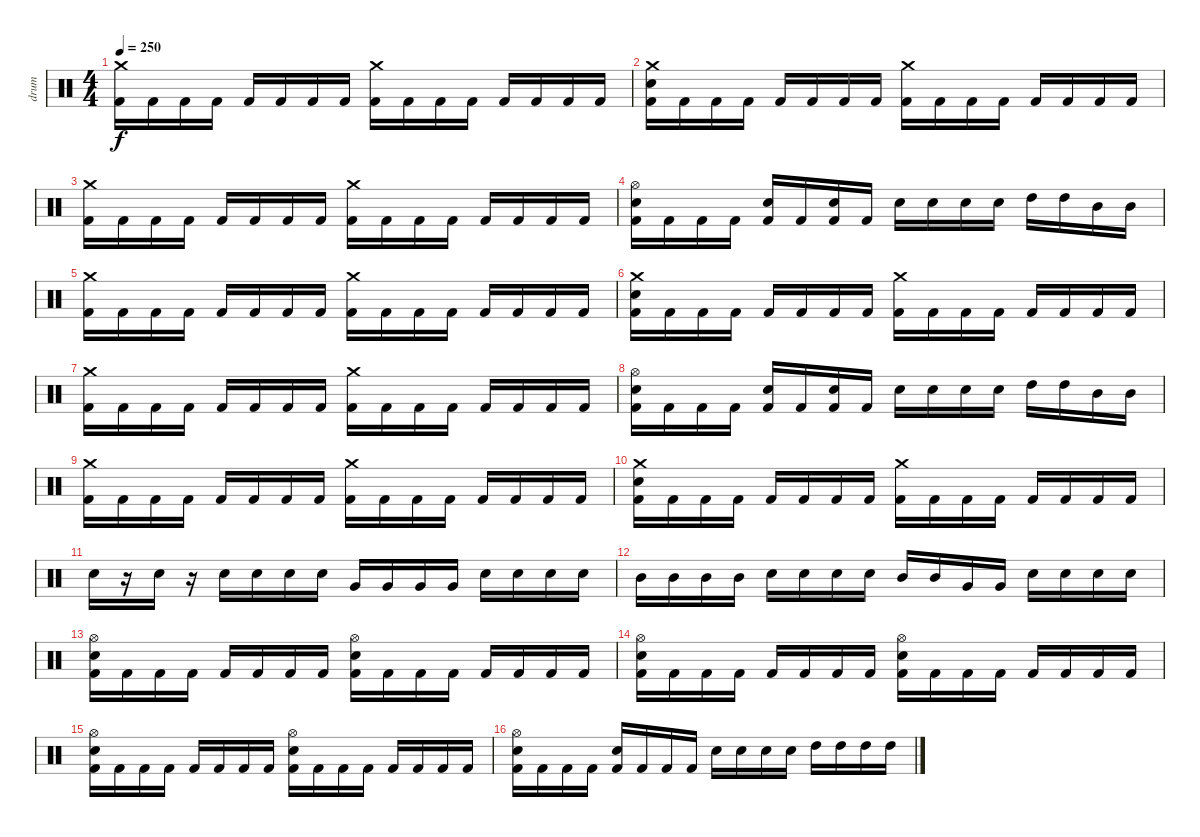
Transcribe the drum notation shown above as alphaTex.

\track ("drum" "drum") {instrument percussion}
\staff {score}
\articulation defaults
\ts (4 4)
\tempo 250
\clef neutral
\ks c
("Crash medium (hit)" "Kick (hit) 2").16{dy f} "Kick (hit) 2".16 "Kick (hit) 2".16 "Kick (hit) 2".16 "Kick (hit) 2".16 "Kick (hit) 2".16 "Kick (hit) 2".16 "Kick (hit) 2".16 ("Crash medium (hit)" "Kick (hit) 2").16 "Kick (hit) 2".16 "Kick (hit) 2".16 "Kick (hit) 2".16 "Kick (hit) 2".16 "Kick (hit) 2".16 "Kick (hit) 2".16 "Kick (hit) 2".16 |
("Snare (hit) 2" "Crash medium (hit)" "Kick (hit) 2").16 "Kick (hit) 2".16 "Kick (hit) 2".16 "Kick (hit) 2".16 "Kick (hit) 2".16 "Kick (hit) 2".16 "Kick (hit) 2".16 "Kick (hit) 2".16 ("Crash medium (hit)" "Kick (hit) 2").16 "Kick (hit) 2".16 "Kick (hit) 2".16 "Kick (hit) 2".16 "Kick (hit) 2".16 "Kick (hit) 2".16 "Kick (hit) 2".16 "Kick (hit) 2".16 |
("Crash medium (hit)" "Kick (hit) 2").16 "Kick (hit) 2".16 "Kick (hit) 2".16 "Kick (hit) 2".16 "Kick (hit) 2".16 "Kick (hit) 2".16 "Kick (hit) 2".16 "Kick (hit) 2".16 ("Crash medium (hit)" "Kick (hit) 2").16 "Kick (hit) 2".16 "Kick (hit) 2".16 "Kick (hit) 2".16 "Kick (hit) 2".16 "Kick (hit) 2".16 "Kick (hit) 2".16 "Kick (hit) 2".16 |
("Snare (hit) 2" "Hi-Hat (open)" "Kick (hit) 2").16 "Kick (hit) 2".16 "Kick (hit) 2".16 "Kick (hit) 2".16 ("Snare (hit) 2" "Kick (hit) 2").16 "Kick (hit) 2".16 ("Snare (hit) 2" "Kick (hit) 2").16 "Kick (hit) 2".16 "Snare (hit) 2".16 "Snare (hit) 2".16 "Snare (hit) 2".16 "Snare (hit) 2".16 "High Tom (hit)".16 "High Tom (hit)".16 "Mid Tom (hit)".16 "Mid Tom (hit)".16 |
("Crash medium (hit)" "Kick (hit) 2").16 "Kick (hit) 2".16 "Kick (hit) 2".16 "Kick (hit) 2".16 "Kick (hit) 2".16 "Kick (hit) 2".16 "Kick (hit) 2".16 "Kick (hit) 2".16 ("Crash medium (hit)" "Kick (hit) 2").16 "Kick (hit) 2".16 "Kick (hit) 2".16 "Kick (hit) 2".16 "Kick (hit) 2".16 "Kick (hit) 2".16 "Kick (hit) 2".16 "Kick (hit) 2".16 |
("Snare (hit) 2" "Crash medium (hit)" "Kick (hit) 2").16 "Kick (hit) 2".16 "Kick (hit) 2".16 "Kick (hit) 2".16 "Kick (hit) 2".16 "Kick (hit) 2".16 "Kick (hit) 2".16 "Kick (hit) 2".16 ("Crash medium (hit)" "Kick (hit) 2").16 "Kick (hit) 2".16 "Kick (hit) 2".16 "Kick (hit) 2".16 "Kick (hit) 2".16 "Kick (hit) 2".16 "Kick (hit) 2".16 "Kick (hit) 2".16 |
("Crash medium (hit)" "Kick (hit) 2").16 "Kick (hit) 2".16 "Kick (hit) 2".16 "Kick (hit) 2".16 "Kick (hit) 2".16 "Kick (hit) 2".16 "Kick (hit) 2".16 "Kick (hit) 2".16 ("Crash medium (hit)" "Kick (hit) 2").16 "Kick (hit) 2".16 "Kick (hit) 2".16 "Kick (hit) 2".16 "Kick (hit) 2".16 "Kick (hit) 2".16 "Kick (hit) 2".16 "Kick (hit) 2".16 |
("Snare (hit) 2" "Hi-Hat (open)" "Kick (hit) 2").16 "Kick (hit) 2".16 "Kick (hit) 2".16 "Kick (hit) 2".16 ("Snare (hit) 2" "Kick (hit) 2").16 "Kick (hit) 2".16 ("Snare (hit) 2" "Kick (hit) 2").16 "Kick (hit) 2".16 "Snare (hit) 2".16 "Snare (hit) 2".16 "Snare (hit) 2".16 "Snare (hit) 2".16 "High Tom (hit)".16 "High Tom (hit)".16 "Mid Tom (hit)".16 "Mid Tom (hit)".16 |
("Crash medium (hit)" "Kick (hit) 2").16 "Kick (hit) 2".16 "Kick (hit) 2".16 "Kick (hit) 2".16 "Kick (hit) 2".16 "Kick (hit) 2".16 "Kick (hit) 2".16 "Kick (hit) 2".16 ("Crash medium (hit)" "Kick (hit) 2").16 "Kick (hit) 2".16 "Kick (hit) 2".16 "Kick (hit) 2".16 "Kick (hit) 2".16 "Kick (hit) 2".16 "Kick (hit) 2".16 "Kick (hit) 2".16 |
("Snare (hit) 2" "Crash medium (hit)" "Kick (hit) 2").16 "Kick (hit) 2".16 "Kick (hit) 2".16 "Kick (hit) 2".16 "Kick (hit) 2".16 "Kick (hit) 2".16 "Kick (hit) 2".16 "Kick (hit) 2".16 ("Crash medium (hit)" "Kick (hit) 2").16 "Kick (hit) 2".16 "Kick (hit) 2".16 "Kick (hit) 2".16 "Kick (hit) 2".16 "Kick (hit) 2".16 "Kick (hit) 2".16 "Kick (hit) 2".16 |
"Snare (hit) 2".16 r.16 "Snare (hit) 2".16 r.16 "Snare (hit) 2".16 "Snare (hit) 2".16 "Snare (hit) 2".16 "Snare (hit) 2".16 "Very Low Tom (hit)".16 "Very Low Tom (hit)".16 "Very Low Tom (hit)".16 "Very Low Tom (hit)".16 "Snare (hit) 2".16 "Snare (hit) 2".16 "Snare (hit) 2".16 "Snare (hit) 2".16 |
"Mid Tom (hit)".16 "Mid Tom (hit)".16 "Mid Tom (hit)".16 "Mid Tom (hit)".16 "Snare (hit) 2".16 "Snare (hit) 2".16 "Snare (hit) 2".16 "Snare (hit) 2".16 "Mid Tom (hit)".16 "Mid Tom (hit)".16 "Very Low Tom (hit)".16 "Very Low Tom (hit)".16 "Snare (hit) 2".16 "Snare (hit) 2".16 "Snare (hit) 2".16 "Snare (hit) 2".16 |
("Snare (hit) 2" "Hi-Hat (open)" "Kick (hit) 2").16 "Kick (hit) 2".16 "Kick (hit) 2".16 "Kick (hit) 2".16 "Kick (hit) 2".16 "Kick (hit) 2".16 "Kick (hit) 2".16 "Kick (hit) 2".16 ("Snare (hit) 2" "Hi-Hat (open)" "Kick (hit) 2").16 "Kick (hit) 2".16 "Kick (hit) 2".16 "Kick (hit) 2".16 "Kick (hit) 2".16 "Kick (hit) 2".16 "Kick (hit) 2".16 "Kick (hit) 2".16 |
("Snare (hit) 2" "Hi-Hat (open)" "Kick (hit) 2").16 "Kick (hit) 2".16 "Kick (hit) 2".16 "Kick (hit) 2".16 "Kick (hit) 2".16 "Kick (hit) 2".16 "Kick (hit) 2".16 "Kick (hit) 2".16 ("Snare (hit) 2" "Hi-Hat (open)" "Kick (hit) 2").16 "Kick (hit) 2".16 "Kick (hit) 2".16 "Kick (hit) 2".16 "Kick (hit) 2".16 "Kick (hit) 2".16 "Kick (hit) 2".16 "Kick (hit) 2".16 |
("Snare (hit) 2" "Hi-Hat (open)" "Kick (hit) 2").16 "Kick (hit) 2".16 "Kick (hit) 2".16 "Kick (hit) 2".16 "Kick (hit) 2".16 "Kick (hit) 2".16 "Kick (hit) 2".16 "Kick (hit) 2".16 ("Snare (hit) 2" "Hi-Hat (open)" "Kick (hit) 2").16 "Kick (hit) 2".16 "Kick (hit) 2".16 "Kick (hit) 2".16 "Kick (hit) 2".16 "Kick (hit) 2".16 "Kick (hit) 2".16 "Kick (hit) 2".16 |
("Snare (hit) 2" "Hi-Hat (open)" "Kick (hit) 2").16 "Kick (hit) 2".16 "Kick (hit) 2".16 "Kick (hit) 2".16 ("Snare (hit) 2" "Kick (hit) 2").16 "Kick (hit) 2".16 "Kick (hit) 2".16 "Kick (hit) 2".16 "Snare (hit) 2".16 "Snare (hit) 2".16 "Snare (hit) 2".16 "Snare (hit) 2".16 "High Tom (hit)".16 "High Tom (hit)".16 "High Tom (hit)".16 "High Tom (hit)".16
